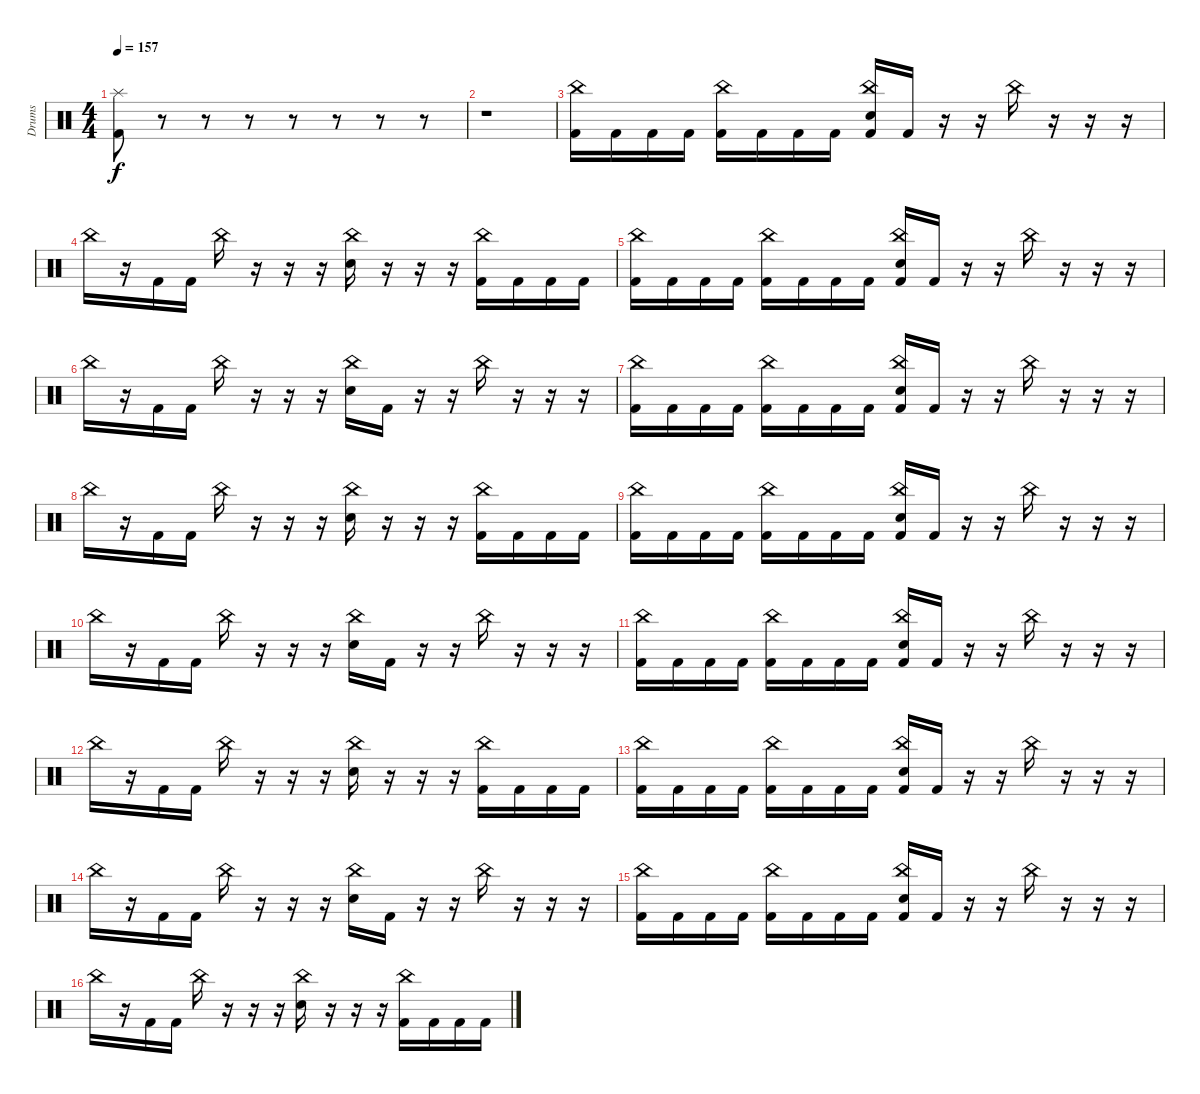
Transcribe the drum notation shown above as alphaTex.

\track ("Drums" "Drums") {instrument percussion}
\staff {score}
\articulation defaults
\ts (4 4)
\tempo 157
\clef neutral
\ks c
("Splash (hit)" "Kick (hit) 2").8{dy f} r.8 r.8 r.8 r.8 r.8 r.8 r.8 |
r.1 |
("China (hit)" "Kick (hit) 2").16 "Kick (hit) 2".16 "Kick (hit) 2".16 "Kick (hit) 2".16 ("China (hit)" "Kick (hit) 2").16 "Kick (hit) 2".16 "Kick (hit) 2".16 "Kick (hit) 2".16 ("China (hit)" "Electric Snare (hit)" "Kick (hit) 2").16 "Kick (hit) 2".16 r.16 r.16 "China (hit)".16 r.16 r.16 r.16 |
"China (hit)".16 r.16 "Kick (hit) 2".16 "Kick (hit) 2".16 "China (hit)".16 r.16 r.16 r.16 ("China (hit)" "Electric Snare (hit)").16 r.16 r.16 r.16 ("China (hit)" "Kick (hit) 2").16 "Kick (hit) 2".16 "Kick (hit) 2".16 "Kick (hit) 2".16 |
("China (hit)" "Kick (hit) 2").16 "Kick (hit) 2".16 "Kick (hit) 2".16 "Kick (hit) 2".16 ("China (hit)" "Kick (hit) 2").16 "Kick (hit) 2".16 "Kick (hit) 2".16 "Kick (hit) 2".16 ("China (hit)" "Electric Snare (hit)" "Kick (hit) 2").16 "Kick (hit) 2".16 r.16 r.16 "China (hit)".16 r.16 r.16 r.16 |
"China (hit)".16 r.16 "Kick (hit) 2".16 "Kick (hit) 2".16 "China (hit)".16 r.16 r.16 r.16 ("China (hit)" "Electric Snare (hit)").16 "Kick (hit) 2".16 r.16 r.16 "China (hit)".16 r.16 r.16 r.16 |
("China (hit)" "Kick (hit) 2").16 "Kick (hit) 2".16 "Kick (hit) 2".16 "Kick (hit) 2".16 ("China (hit)" "Kick (hit) 2").16 "Kick (hit) 2".16 "Kick (hit) 2".16 "Kick (hit) 2".16 ("China (hit)" "Electric Snare (hit)" "Kick (hit) 2").16 "Kick (hit) 2".16 r.16 r.16 "China (hit)".16 r.16 r.16 r.16 |
"China (hit)".16 r.16 "Kick (hit) 2".16 "Kick (hit) 2".16 "China (hit)".16 r.16 r.16 r.16 ("China (hit)" "Electric Snare (hit)").16 r.16 r.16 r.16 ("China (hit)" "Kick (hit) 2").16 "Kick (hit) 2".16 "Kick (hit) 2".16 "Kick (hit) 2".16 |
("China (hit)" "Kick (hit) 2").16 "Kick (hit) 2".16 "Kick (hit) 2".16 "Kick (hit) 2".16 ("China (hit)" "Kick (hit) 2").16 "Kick (hit) 2".16 "Kick (hit) 2".16 "Kick (hit) 2".16 ("China (hit)" "Electric Snare (hit)" "Kick (hit) 2").16 "Kick (hit) 2".16 r.16 r.16 "China (hit)".16 r.16 r.16 r.16 |
"China (hit)".16 r.16 "Kick (hit) 2".16 "Kick (hit) 2".16 "China (hit)".16 r.16 r.16 r.16 ("China (hit)" "Electric Snare (hit)").16 "Kick (hit) 2".16 r.16 r.16 "China (hit)".16 r.16 r.16 r.16 |
("China (hit)" "Kick (hit) 2").16 "Kick (hit) 2".16 "Kick (hit) 2".16 "Kick (hit) 2".16 ("China (hit)" "Kick (hit) 2").16 "Kick (hit) 2".16 "Kick (hit) 2".16 "Kick (hit) 2".16 ("China (hit)" "Electric Snare (hit)" "Kick (hit) 2").16 "Kick (hit) 2".16 r.16 r.16 "China (hit)".16 r.16 r.16 r.16 |
"China (hit)".16 r.16 "Kick (hit) 2".16 "Kick (hit) 2".16 "China (hit)".16 r.16 r.16 r.16 ("China (hit)" "Electric Snare (hit)").16 r.16 r.16 r.16 ("China (hit)" "Kick (hit) 2").16 "Kick (hit) 2".16 "Kick (hit) 2".16 "Kick (hit) 2".16 |
("China (hit)" "Kick (hit) 2").16 "Kick (hit) 2".16 "Kick (hit) 2".16 "Kick (hit) 2".16 ("China (hit)" "Kick (hit) 2").16 "Kick (hit) 2".16 "Kick (hit) 2".16 "Kick (hit) 2".16 ("China (hit)" "Electric Snare (hit)" "Kick (hit) 2").16 "Kick (hit) 2".16 r.16 r.16 "China (hit)".16 r.16 r.16 r.16 |
"China (hit)".16 r.16 "Kick (hit) 2".16 "Kick (hit) 2".16 "China (hit)".16 r.16 r.16 r.16 ("China (hit)" "Electric Snare (hit)").16 "Kick (hit) 2".16 r.16 r.16 "China (hit)".16 r.16 r.16 r.16 |
("China (hit)" "Kick (hit) 2").16 "Kick (hit) 2".16 "Kick (hit) 2".16 "Kick (hit) 2".16 ("China (hit)" "Kick (hit) 2").16 "Kick (hit) 2".16 "Kick (hit) 2".16 "Kick (hit) 2".16 ("China (hit)" "Electric Snare (hit)" "Kick (hit) 2").16 "Kick (hit) 2".16 r.16 r.16 "China (hit)".16 r.16 r.16 r.16 |
"China (hit)".16 r.16 "Kick (hit) 2".16 "Kick (hit) 2".16 "China (hit)".16 r.16 r.16 r.16 ("China (hit)" "Electric Snare (hit)").16 r.16 r.16 r.16 ("China (hit)" "Kick (hit) 2").16 "Kick (hit) 2".16 "Kick (hit) 2".16 "Kick (hit) 2".16
